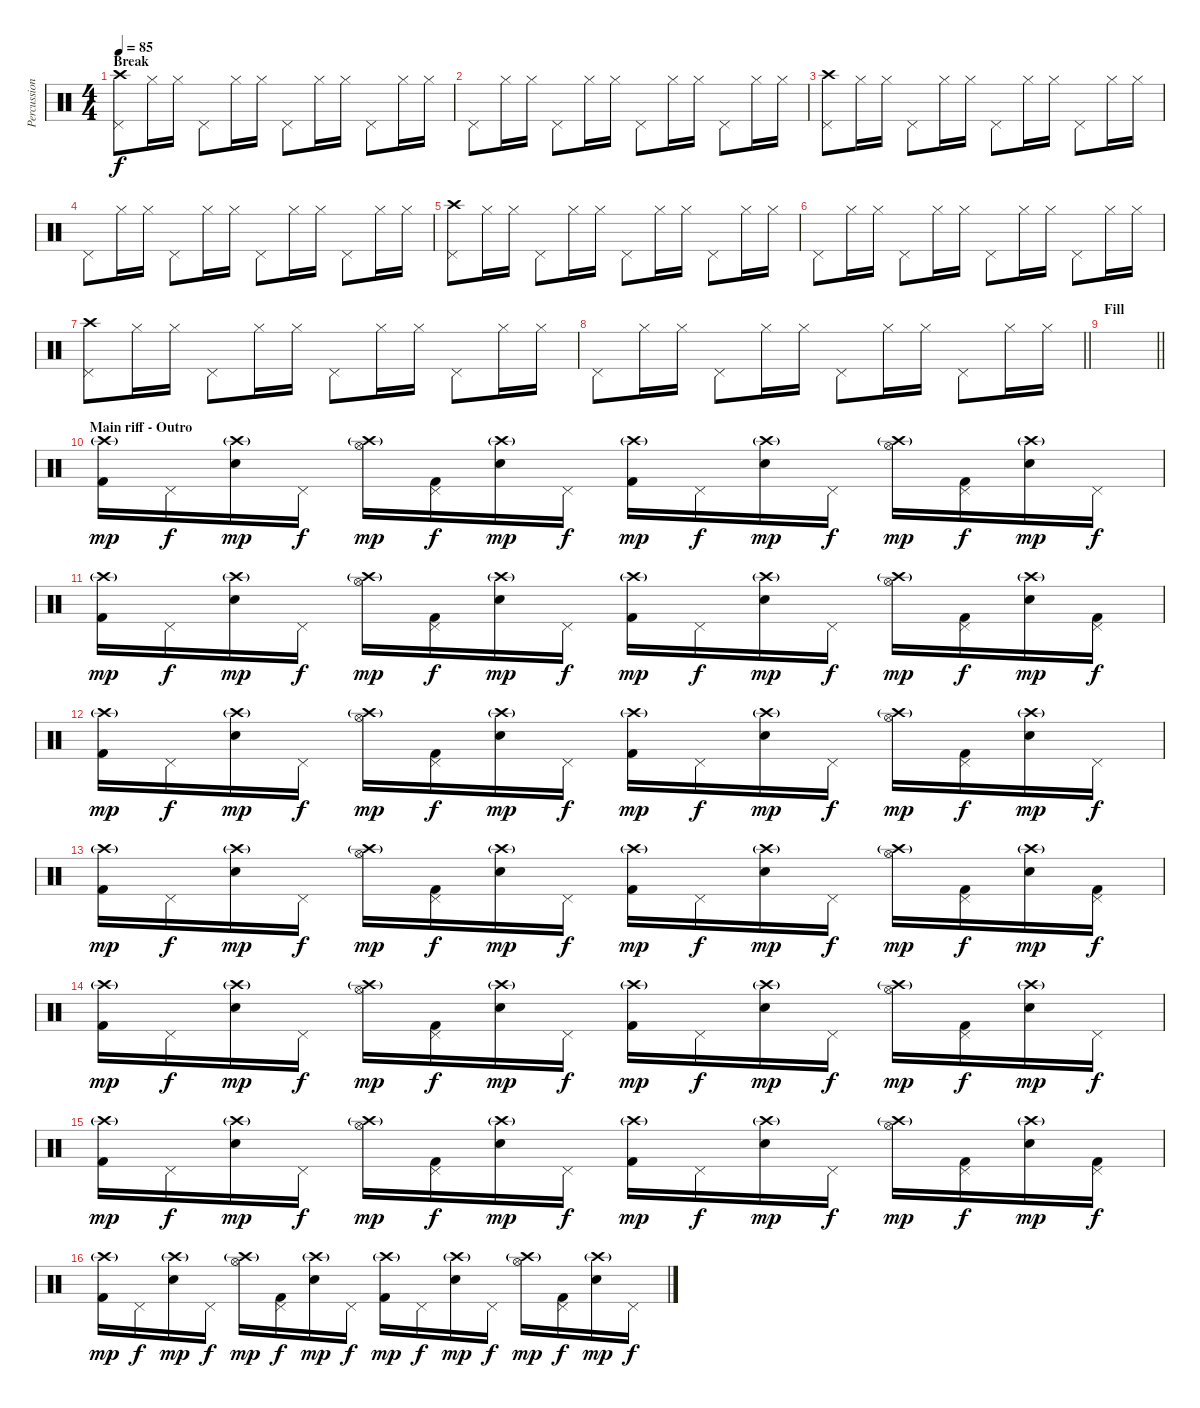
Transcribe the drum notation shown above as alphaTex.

\track ("Percussion" "Percussion") {instrument percussion}
\staff {score}
\articulation defaults
\ts (4 4)
\section ("" "Break")
\tempo 85
\clef neutral
\ks c
("Crash high (hit)" "Pedal Hi-Hat (hit)").8{dy f} "Hi-Hat (closed)".16 "Hi-Hat (closed)".16 "Pedal Hi-Hat (hit)".8 "Hi-Hat (closed)".16 "Hi-Hat (closed)".16 "Pedal Hi-Hat (hit)".8 "Hi-Hat (closed)".16 "Hi-Hat (closed)".16 "Pedal Hi-Hat (hit)".8 "Hi-Hat (closed)".16 "Hi-Hat (closed)".16 |
"Pedal Hi-Hat (hit)".8 "Hi-Hat (closed)".16 "Hi-Hat (closed)".16 "Pedal Hi-Hat (hit)".8 "Hi-Hat (closed)".16 "Hi-Hat (closed)".16 "Pedal Hi-Hat (hit)".8 "Hi-Hat (closed)".16 "Hi-Hat (closed)".16 "Pedal Hi-Hat (hit)".8 "Hi-Hat (closed)".16 "Hi-Hat (closed)".16 |
("Crash high (hit)" "Pedal Hi-Hat (hit)").8 "Hi-Hat (closed)".16 "Hi-Hat (closed)".16 "Pedal Hi-Hat (hit)".8 "Hi-Hat (closed)".16 "Hi-Hat (closed)".16 "Pedal Hi-Hat (hit)".8 "Hi-Hat (closed)".16 "Hi-Hat (closed)".16 "Pedal Hi-Hat (hit)".8 "Hi-Hat (closed)".16 "Hi-Hat (closed)".16 |
"Pedal Hi-Hat (hit)".8 "Hi-Hat (closed)".16 "Hi-Hat (closed)".16 "Pedal Hi-Hat (hit)".8 "Hi-Hat (closed)".16 "Hi-Hat (closed)".16 "Pedal Hi-Hat (hit)".8 "Hi-Hat (closed)".16 "Hi-Hat (closed)".16 "Pedal Hi-Hat (hit)".8 "Hi-Hat (closed)".16 "Hi-Hat (closed)".16 |
("Crash high (hit)" "Pedal Hi-Hat (hit)").8 "Hi-Hat (closed)".16 "Hi-Hat (closed)".16 "Pedal Hi-Hat (hit)".8 "Hi-Hat (closed)".16 "Hi-Hat (closed)".16 "Pedal Hi-Hat (hit)".8 "Hi-Hat (closed)".16 "Hi-Hat (closed)".16 "Pedal Hi-Hat (hit)".8 "Hi-Hat (closed)".16 "Hi-Hat (closed)".16 |
"Pedal Hi-Hat (hit)".8 "Hi-Hat (closed)".16 "Hi-Hat (closed)".16 "Pedal Hi-Hat (hit)".8 "Hi-Hat (closed)".16 "Hi-Hat (closed)".16 "Pedal Hi-Hat (hit)".8 "Hi-Hat (closed)".16 "Hi-Hat (closed)".16 "Pedal Hi-Hat (hit)".8 "Hi-Hat (closed)".16 "Hi-Hat (closed)".16 |
("Crash high (hit)" "Pedal Hi-Hat (hit)").8 "Hi-Hat (closed)".16 "Hi-Hat (closed)".16 "Pedal Hi-Hat (hit)".8 "Hi-Hat (closed)".16 "Hi-Hat (closed)".16 "Pedal Hi-Hat (hit)".8 "Hi-Hat (closed)".16 "Hi-Hat (closed)".16 "Pedal Hi-Hat (hit)".8 "Hi-Hat (closed)".16 "Hi-Hat (closed)".16 |
\barLineRight lightlight "Pedal Hi-Hat (hit)".8 "Hi-Hat (closed)".16 "Hi-Hat (closed)".16 "Pedal Hi-Hat (hit)".8 "Hi-Hat (closed)".16 "Hi-Hat (closed)".16 "Pedal Hi-Hat (hit)".8 "Hi-Hat (closed)".16 "Hi-Hat (closed)".16 "Pedal Hi-Hat (hit)".8 "Hi-Hat (closed)".16 "Hi-Hat (closed)".16
|
\section ("" "Fill")
\barLineRight lightlight
|
\section ("" "Main riff - Outro")
("Crash high (hit)"{g} "Kick (hit) 2").16{dy mp} "Pedal Hi-Hat (hit)".16{dy f} ("Crash high (hit)"{g} "Snare (hit) 2").16{dy mp} "Pedal Hi-Hat (hit)".16{dy f} ("Crash high (hit)"{g} "Hi-Hat (open)").16{dy mp} ("Pedal Hi-Hat (hit)" "Kick (hit) 2").16{dy f} ("Crash high (hit)"{g} "Snare (hit) 2").16{dy mp} "Pedal Hi-Hat (hit)".16{dy f} ("Crash high (hit)"{g} "Kick (hit) 2").16{dy mp} "Pedal Hi-Hat (hit)".16{dy f} ("Crash high (hit)"{g} "Snare (hit) 2").16{dy mp} "Pedal Hi-Hat (hit)".16{dy f} ("Crash high (hit)"{g} "Hi-Hat (open)").16{dy mp} ("Pedal Hi-Hat (hit)" "Kick (hit) 2").16{dy f} ("Crash high (hit)"{g} "Snare (hit) 2").16{dy mp} "Pedal Hi-Hat (hit)".16{dy f} |
("Crash high (hit)"{g} "Kick (hit) 2").16{dy mp} "Pedal Hi-Hat (hit)".16{dy f} ("Crash high (hit)"{g} "Snare (hit) 2").16{dy mp} "Pedal Hi-Hat (hit)".16{dy f} ("Crash high (hit)"{g} "Hi-Hat (open)").16{dy mp} ("Pedal Hi-Hat (hit)" "Kick (hit) 2").16{dy f} ("Crash high (hit)"{g} "Snare (hit) 2").16{dy mp} "Pedal Hi-Hat (hit)".16{dy f} ("Crash high (hit)"{g} "Kick (hit) 2").16{dy mp} "Pedal Hi-Hat (hit)".16{dy f} ("Crash high (hit)"{g} "Snare (hit) 2").16{dy mp} "Pedal Hi-Hat (hit)".16{dy f} ("Crash high (hit)"{g} "Hi-Hat (open)").16{dy mp} ("Pedal Hi-Hat (hit)" "Kick (hit) 2").16{dy f} ("Crash high (hit)"{g} "Snare (hit) 2").16{dy mp} ("Pedal Hi-Hat (hit)" "Kick (hit) 2").16{dy f} |
("Crash high (hit)"{g} "Kick (hit) 2").16{dy mp} "Pedal Hi-Hat (hit)".16{dy f} ("Crash high (hit)"{g} "Snare (hit) 2").16{dy mp} "Pedal Hi-Hat (hit)".16{dy f} ("Crash high (hit)"{g} "Hi-Hat (open)").16{dy mp} ("Pedal Hi-Hat (hit)" "Kick (hit) 2").16{dy f} ("Crash high (hit)"{g} "Snare (hit) 2").16{dy mp} "Pedal Hi-Hat (hit)".16{dy f} ("Crash high (hit)"{g} "Kick (hit) 2").16{dy mp} "Pedal Hi-Hat (hit)".16{dy f} ("Crash high (hit)"{g} "Snare (hit) 2").16{dy mp} "Pedal Hi-Hat (hit)".16{dy f} ("Crash high (hit)"{g} "Hi-Hat (open)").16{dy mp} ("Pedal Hi-Hat (hit)" "Kick (hit) 2").16{dy f} ("Crash high (hit)"{g} "Snare (hit) 2").16{dy mp} "Pedal Hi-Hat (hit)".16{dy f} |
("Crash high (hit)"{g} "Kick (hit) 2").16{dy mp} "Pedal Hi-Hat (hit)".16{dy f} ("Crash high (hit)"{g} "Snare (hit) 2").16{dy mp} "Pedal Hi-Hat (hit)".16{dy f} ("Crash high (hit)"{g} "Hi-Hat (open)").16{dy mp} ("Pedal Hi-Hat (hit)" "Kick (hit) 2").16{dy f} ("Crash high (hit)"{g} "Snare (hit) 2").16{dy mp} "Pedal Hi-Hat (hit)".16{dy f} ("Crash high (hit)"{g} "Kick (hit) 2").16{dy mp} "Pedal Hi-Hat (hit)".16{dy f} ("Crash high (hit)"{g} "Snare (hit) 2").16{dy mp} "Pedal Hi-Hat (hit)".16{dy f} ("Crash high (hit)"{g} "Hi-Hat (open)").16{dy mp} ("Pedal Hi-Hat (hit)" "Kick (hit) 2").16{dy f} ("Crash high (hit)"{g} "Snare (hit) 2").16{dy mp} ("Pedal Hi-Hat (hit)" "Kick (hit) 2").16{dy f} |
("Crash high (hit)"{g} "Kick (hit) 2").16{dy mp} "Pedal Hi-Hat (hit)".16{dy f} ("Crash high (hit)"{g} "Snare (hit) 2").16{dy mp} "Pedal Hi-Hat (hit)".16{dy f} ("Crash high (hit)"{g} "Hi-Hat (open)").16{dy mp} ("Pedal Hi-Hat (hit)" "Kick (hit) 2").16{dy f} ("Crash high (hit)"{g} "Snare (hit) 2").16{dy mp} "Pedal Hi-Hat (hit)".16{dy f} ("Crash high (hit)"{g} "Kick (hit) 2").16{dy mp} "Pedal Hi-Hat (hit)".16{dy f} ("Crash high (hit)"{g} "Snare (hit) 2").16{dy mp} "Pedal Hi-Hat (hit)".16{dy f} ("Crash high (hit)"{g} "Hi-Hat (open)").16{dy mp} ("Pedal Hi-Hat (hit)" "Kick (hit) 2").16{dy f} ("Crash high (hit)"{g} "Snare (hit) 2").16{dy mp} "Pedal Hi-Hat (hit)".16{dy f} |
("Crash high (hit)"{g} "Kick (hit) 2").16{dy mp} "Pedal Hi-Hat (hit)".16{dy f} ("Crash high (hit)"{g} "Snare (hit) 2").16{dy mp} "Pedal Hi-Hat (hit)".16{dy f} ("Crash high (hit)"{g} "Hi-Hat (open)").16{dy mp} ("Pedal Hi-Hat (hit)" "Kick (hit) 2").16{dy f} ("Crash high (hit)"{g} "Snare (hit) 2").16{dy mp} "Pedal Hi-Hat (hit)".16{dy f} ("Crash high (hit)"{g} "Kick (hit) 2").16{dy mp} "Pedal Hi-Hat (hit)".16{dy f} ("Crash high (hit)"{g} "Snare (hit) 2").16{dy mp} "Pedal Hi-Hat (hit)".16{dy f} ("Crash high (hit)"{g} "Hi-Hat (open)").16{dy mp} ("Pedal Hi-Hat (hit)" "Kick (hit) 2").16{dy f} ("Crash high (hit)"{g} "Snare (hit) 2").16{dy mp} ("Pedal Hi-Hat (hit)" "Kick (hit) 2").16{dy f} |
("Crash high (hit)"{g} "Kick (hit) 2").16{dy mp} "Pedal Hi-Hat (hit)".16{dy f} ("Crash high (hit)"{g} "Snare (hit) 2").16{dy mp} "Pedal Hi-Hat (hit)".16{dy f} ("Crash high (hit)"{g} "Hi-Hat (open)").16{dy mp} ("Pedal Hi-Hat (hit)" "Kick (hit) 2").16{dy f} ("Crash high (hit)"{g} "Snare (hit) 2").16{dy mp} "Pedal Hi-Hat (hit)".16{dy f} ("Crash high (hit)"{g} "Kick (hit) 2").16{dy mp} "Pedal Hi-Hat (hit)".16{dy f} ("Crash high (hit)"{g} "Snare (hit) 2").16{dy mp} "Pedal Hi-Hat (hit)".16{dy f} ("Crash high (hit)"{g} "Hi-Hat (open)").16{dy mp} ("Pedal Hi-Hat (hit)" "Kick (hit) 2").16{dy f} ("Crash high (hit)"{g} "Snare (hit) 2").16{dy mp} "Pedal Hi-Hat (hit)".16{dy f}
